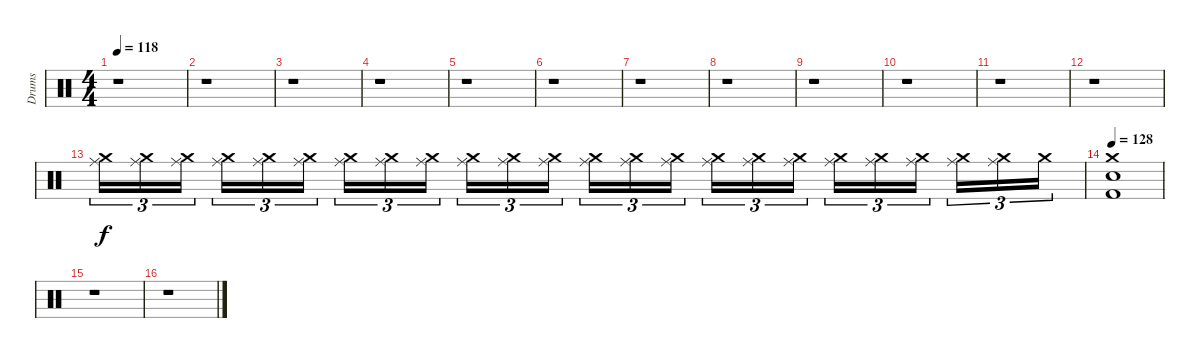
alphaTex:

\track ("Drums" "Drums") {instrument percussion}
\staff {score}
\articulation defaults
\ts (4 4)
\tempo 118
\clef neutral
\ks c
r.1{dy f} |
r.1 |
r.1 |
r.1 |
r.1 |
r.1 |
r.1 |
r.1 |
r.1 |
r.1 |
r.1 |
r.1{volume 0} |
("Ride (middle)" "Crash medium (hit)").16{tu (3 2) volume 16} ("Ride (middle)" "Crash medium (hit)").16{tu (3 2)} ("Ride (middle)" "Crash medium (hit)").16{tu (3 2) beam splitsecondary} ("Ride (middle)" "Crash medium (hit)").16{tu (3 2)} ("Ride (middle)" "Crash medium (hit)").16{tu (3 2)} ("Ride (middle)" "Crash medium (hit)").16{tu (3 2)} ("Ride (middle)" "Crash medium (hit)").16{tu (3 2)} ("Ride (middle)" "Crash medium (hit)").16{tu (3 2)} ("Ride (middle)" "Crash medium (hit)").16{tu (3 2) beam splitsecondary} ("Ride (middle)" "Crash medium (hit)").16{tu (3 2)} ("Ride (middle)" "Crash medium (hit)").16{tu (3 2)} ("Ride (middle)" "Crash medium (hit)").16{tu (3 2)} ("Ride (middle)" "Crash medium (hit)").16{tu (3 2)} ("Ride (middle)" "Crash medium (hit)").16{tu (3 2)} ("Ride (middle)" "Crash medium (hit)").16{tu (3 2) beam splitsecondary} ("Ride (middle)" "Crash medium (hit)").16{tu (3 2)} ("Ride (middle)" "Crash medium (hit)").16{tu (3 2)} ("Ride (middle)" "Crash medium (hit)").16{tu (3 2)} ("Ride (middle)" "Crash medium (hit)").16{tu (3 2)} ("Ride (middle)" "Crash medium (hit)").16{tu (3 2)} ("Ride (middle)" "Crash medium (hit)").16{tu (3 2) beam splitsecondary} ("Ride (middle)" "Crash medium (hit)").16{tu (3 2)} ("Ride (middle)" "Crash medium (hit)").16{tu (3 2)} "Crash medium (hit)".16{tu (3 2)} |
\tempo 130
\tempo 128
("Crash medium (hit)" "Electric Snare (hit)" "Kick (hit) 2").1 |
r.1 |
r.1
